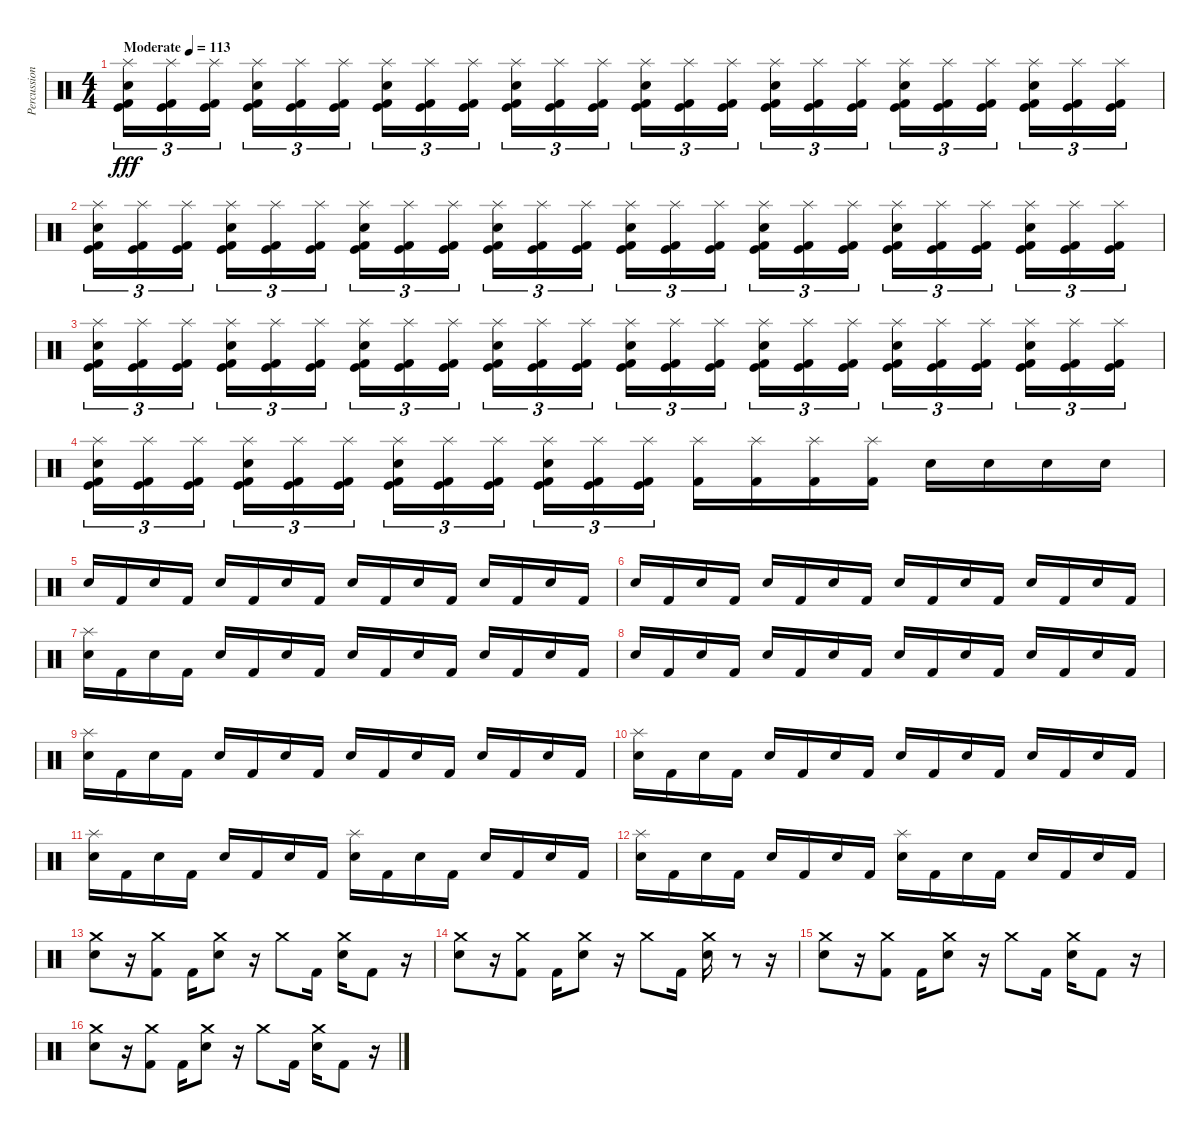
\track ("Percussion" "Percussion") {instrument percussion}
\staff {score}
\articulation defaults
\ts (4 4)
\tempo (113 "Moderate")
\clef neutral
\ks c
("Splash (hit)" "Electric Snare (hit)" "Kick (hit) 2" "Kick (hit)").16{tu (3 2) dy fff} ("Splash (hit)" "Kick (hit) 2" "Kick (hit)").16{tu (3 2)} ("Splash (hit)" "Kick (hit) 2" "Kick (hit)").16{tu (3 2) beam splitsecondary} ("Splash (hit)" "Electric Snare (hit)" "Kick (hit) 2" "Kick (hit)").16{tu (3 2)} ("Splash (hit)" "Kick (hit) 2" "Kick (hit)").16{tu (3 2)} ("Splash (hit)" "Kick (hit) 2" "Kick (hit)").16{tu (3 2)} ("Splash (hit)" "Electric Snare (hit)" "Kick (hit) 2" "Kick (hit)").16{tu (3 2)} ("Splash (hit)" "Kick (hit) 2" "Kick (hit)").16{tu (3 2)} ("Splash (hit)" "Kick (hit) 2" "Kick (hit)").16{tu (3 2) beam splitsecondary} ("Splash (hit)" "Electric Snare (hit)" "Kick (hit) 2" "Kick (hit)").16{tu (3 2)} ("Splash (hit)" "Kick (hit) 2" "Kick (hit)").16{tu (3 2)} ("Splash (hit)" "Kick (hit) 2" "Kick (hit)").16{tu (3 2)} ("Splash (hit)" "Electric Snare (hit)" "Kick (hit) 2" "Kick (hit)").16{tu (3 2)} ("Splash (hit)" "Kick (hit) 2" "Kick (hit)").16{tu (3 2)} ("Splash (hit)" "Kick (hit) 2" "Kick (hit)").16{tu (3 2) beam splitsecondary} ("Splash (hit)" "Electric Snare (hit)" "Kick (hit) 2" "Kick (hit)").16{tu (3 2)} ("Splash (hit)" "Kick (hit) 2" "Kick (hit)").16{tu (3 2)} ("Splash (hit)" "Kick (hit) 2" "Kick (hit)").16{tu (3 2)} ("Splash (hit)" "Electric Snare (hit)" "Kick (hit) 2" "Kick (hit)").16{tu (3 2)} ("Splash (hit)" "Kick (hit) 2" "Kick (hit)").16{tu (3 2)} ("Splash (hit)" "Kick (hit) 2" "Kick (hit)").16{tu (3 2) beam splitsecondary} ("Splash (hit)" "Electric Snare (hit)" "Kick (hit) 2" "Kick (hit)").16{tu (3 2)} ("Splash (hit)" "Kick (hit) 2" "Kick (hit)").16{tu (3 2)} ("Splash (hit)" "Kick (hit) 2" "Kick (hit)").16{tu (3 2)} |
("Splash (hit)" "Electric Snare (hit)" "Kick (hit) 2" "Kick (hit)").16{tu (3 2)} ("Splash (hit)" "Kick (hit) 2" "Kick (hit)").16{tu (3 2)} ("Splash (hit)" "Kick (hit) 2" "Kick (hit)").16{tu (3 2) beam splitsecondary} ("Splash (hit)" "Electric Snare (hit)" "Kick (hit) 2" "Kick (hit)").16{tu (3 2)} ("Splash (hit)" "Kick (hit) 2" "Kick (hit)").16{tu (3 2)} ("Splash (hit)" "Kick (hit) 2" "Kick (hit)").16{tu (3 2)} ("Splash (hit)" "Electric Snare (hit)" "Kick (hit) 2" "Kick (hit)").16{tu (3 2)} ("Splash (hit)" "Kick (hit) 2" "Kick (hit)").16{tu (3 2)} ("Splash (hit)" "Kick (hit) 2" "Kick (hit)").16{tu (3 2) beam splitsecondary} ("Splash (hit)" "Electric Snare (hit)" "Kick (hit) 2" "Kick (hit)").16{tu (3 2)} ("Splash (hit)" "Kick (hit) 2" "Kick (hit)").16{tu (3 2)} ("Splash (hit)" "Kick (hit) 2" "Kick (hit)").16{tu (3 2)} ("Splash (hit)" "Electric Snare (hit)" "Kick (hit) 2" "Kick (hit)").16{tu (3 2)} ("Splash (hit)" "Kick (hit) 2" "Kick (hit)").16{tu (3 2)} ("Splash (hit)" "Kick (hit) 2" "Kick (hit)").16{tu (3 2) beam splitsecondary} ("Splash (hit)" "Electric Snare (hit)" "Kick (hit) 2" "Kick (hit)").16{tu (3 2)} ("Splash (hit)" "Kick (hit) 2" "Kick (hit)").16{tu (3 2)} ("Splash (hit)" "Kick (hit) 2" "Kick (hit)").16{tu (3 2)} ("Splash (hit)" "Electric Snare (hit)" "Kick (hit) 2" "Kick (hit)").16{tu (3 2)} ("Splash (hit)" "Kick (hit) 2" "Kick (hit)").16{tu (3 2)} ("Splash (hit)" "Kick (hit) 2" "Kick (hit)").16{tu (3 2) beam splitsecondary} ("Splash (hit)" "Electric Snare (hit)" "Kick (hit) 2" "Kick (hit)").16{tu (3 2)} ("Splash (hit)" "Kick (hit) 2" "Kick (hit)").16{tu (3 2)} ("Splash (hit)" "Kick (hit) 2" "Kick (hit)").16{tu (3 2)} |
("Splash (hit)" "Electric Snare (hit)" "Kick (hit) 2" "Kick (hit)").16{tu (3 2)} ("Splash (hit)" "Kick (hit) 2" "Kick (hit)").16{tu (3 2)} ("Splash (hit)" "Kick (hit) 2" "Kick (hit)").16{tu (3 2) beam splitsecondary} ("Splash (hit)" "Electric Snare (hit)" "Kick (hit) 2" "Kick (hit)").16{tu (3 2)} ("Splash (hit)" "Kick (hit) 2" "Kick (hit)").16{tu (3 2)} ("Splash (hit)" "Kick (hit) 2" "Kick (hit)").16{tu (3 2)} ("Splash (hit)" "Electric Snare (hit)" "Kick (hit) 2" "Kick (hit)").16{tu (3 2)} ("Splash (hit)" "Kick (hit) 2" "Kick (hit)").16{tu (3 2)} ("Splash (hit)" "Kick (hit) 2" "Kick (hit)").16{tu (3 2) beam splitsecondary} ("Splash (hit)" "Electric Snare (hit)" "Kick (hit) 2" "Kick (hit)").16{tu (3 2)} ("Splash (hit)" "Kick (hit) 2" "Kick (hit)").16{tu (3 2)} ("Splash (hit)" "Kick (hit) 2" "Kick (hit)").16{tu (3 2)} ("Splash (hit)" "Electric Snare (hit)" "Kick (hit) 2" "Kick (hit)").16{tu (3 2)} ("Splash (hit)" "Kick (hit) 2" "Kick (hit)").16{tu (3 2)} ("Splash (hit)" "Kick (hit) 2" "Kick (hit)").16{tu (3 2) beam splitsecondary} ("Splash (hit)" "Electric Snare (hit)" "Kick (hit) 2" "Kick (hit)").16{tu (3 2)} ("Splash (hit)" "Kick (hit) 2" "Kick (hit)").16{tu (3 2)} ("Splash (hit)" "Kick (hit) 2" "Kick (hit)").16{tu (3 2)} ("Splash (hit)" "Electric Snare (hit)" "Kick (hit) 2" "Kick (hit)").16{tu (3 2)} ("Splash (hit)" "Kick (hit) 2" "Kick (hit)").16{tu (3 2)} ("Splash (hit)" "Kick (hit) 2" "Kick (hit)").16{tu (3 2) beam splitsecondary} ("Splash (hit)" "Electric Snare (hit)" "Kick (hit) 2" "Kick (hit)").16{tu (3 2)} ("Splash (hit)" "Kick (hit) 2" "Kick (hit)").16{tu (3 2)} ("Splash (hit)" "Kick (hit) 2" "Kick (hit)").16{tu (3 2)} |
("Splash (hit)" "Electric Snare (hit)" "Kick (hit) 2" "Kick (hit)").16{tu (3 2)} ("Splash (hit)" "Kick (hit) 2" "Kick (hit)").16{tu (3 2)} ("Splash (hit)" "Kick (hit) 2" "Kick (hit)").16{tu (3 2) beam splitsecondary} ("Splash (hit)" "Electric Snare (hit)" "Kick (hit) 2" "Kick (hit)").16{tu (3 2)} ("Splash (hit)" "Kick (hit) 2" "Kick (hit)").16{tu (3 2)} ("Splash (hit)" "Kick (hit) 2" "Kick (hit)").16{tu (3 2)} ("Splash (hit)" "Electric Snare (hit)" "Kick (hit) 2" "Kick (hit)").16{tu (3 2)} ("Splash (hit)" "Kick (hit) 2" "Kick (hit)").16{tu (3 2)} ("Splash (hit)" "Kick (hit) 2" "Kick (hit)").16{tu (3 2) beam splitsecondary} ("Splash (hit)" "Electric Snare (hit)" "Kick (hit) 2" "Kick (hit)").16{tu (3 2)} ("Splash (hit)" "Kick (hit) 2" "Kick (hit)").16{tu (3 2)} ("Splash (hit)" "Kick (hit) 2" "Kick (hit)").16{tu (3 2)} ("Splash (hit)" "Kick (hit) 2").16 ("Splash (hit)" "Kick (hit) 2").16 ("Splash (hit)" "Kick (hit) 2").16 ("Splash (hit)" "Kick (hit) 2").16 "Electric Snare (hit)".16 "Electric Snare (hit)".16 "Electric Snare (hit)".16 "Electric Snare (hit)".16 |
"Electric Snare (hit)".16 "Kick (hit) 2".16 "Electric Snare (hit)".16 "Kick (hit) 2".16 "Electric Snare (hit)".16 "Kick (hit) 2".16 "Electric Snare (hit)".16 "Kick (hit) 2".16 "Electric Snare (hit)".16 "Kick (hit) 2".16 "Electric Snare (hit)".16 "Kick (hit) 2".16 "Electric Snare (hit)".16 "Kick (hit) 2".16 "Electric Snare (hit)".16 "Kick (hit) 2".16 |
"Electric Snare (hit)".16 "Kick (hit) 2".16 "Electric Snare (hit)".16 "Kick (hit) 2".16 "Electric Snare (hit)".16 "Kick (hit) 2".16 "Electric Snare (hit)".16 "Kick (hit) 2".16 "Electric Snare (hit)".16 "Kick (hit) 2".16 "Electric Snare (hit)".16 "Kick (hit) 2".16 "Electric Snare (hit)".16 "Kick (hit) 2".16 "Electric Snare (hit)".16 "Kick (hit) 2".16 |
("Splash (hit)" "Electric Snare (hit)").16 "Kick (hit) 2".16 "Electric Snare (hit)".16 "Kick (hit) 2".16 "Electric Snare (hit)".16 "Kick (hit) 2".16 "Electric Snare (hit)".16 "Kick (hit) 2".16 "Electric Snare (hit)".16 "Kick (hit) 2".16 "Electric Snare (hit)".16 "Kick (hit) 2".16 "Electric Snare (hit)".16 "Kick (hit) 2".16 "Electric Snare (hit)".16 "Kick (hit) 2".16 |
"Electric Snare (hit)".16 "Kick (hit) 2".16 "Electric Snare (hit)".16 "Kick (hit) 2".16 "Electric Snare (hit)".16 "Kick (hit) 2".16 "Electric Snare (hit)".16 "Kick (hit) 2".16 "Electric Snare (hit)".16 "Kick (hit) 2".16 "Electric Snare (hit)".16 "Kick (hit) 2".16 "Electric Snare (hit)".16 "Kick (hit) 2".16 "Electric Snare (hit)".16 "Kick (hit) 2".16 |
("Splash (hit)" "Electric Snare (hit)").16 "Kick (hit) 2".16 "Electric Snare (hit)".16 "Kick (hit) 2".16 "Electric Snare (hit)".16 "Kick (hit) 2".16 "Electric Snare (hit)".16 "Kick (hit) 2".16 "Electric Snare (hit)".16 "Kick (hit) 2".16 "Electric Snare (hit)".16 "Kick (hit) 2".16 "Electric Snare (hit)".16 "Kick (hit) 2".16 "Electric Snare (hit)".16 "Kick (hit) 2".16 |
("Splash (hit)" "Electric Snare (hit)").16 "Kick (hit) 2".16 "Electric Snare (hit)".16 "Kick (hit) 2".16 "Electric Snare (hit)".16 "Kick (hit) 2".16 "Electric Snare (hit)".16 "Kick (hit) 2".16 "Electric Snare (hit)".16 "Kick (hit) 2".16 "Electric Snare (hit)".16 "Kick (hit) 2".16 "Electric Snare (hit)".16 "Kick (hit) 2".16 "Electric Snare (hit)".16 "Kick (hit) 2".16 |
("Splash (hit)" "Electric Snare (hit)").16 "Kick (hit) 2".16 "Electric Snare (hit)".16 "Kick (hit) 2".16 "Electric Snare (hit)".16 "Kick (hit) 2".16 "Electric Snare (hit)".16 "Kick (hit) 2".16 ("Splash (hit)" "Electric Snare (hit)").16 "Kick (hit) 2".16 "Electric Snare (hit)".16 "Kick (hit) 2".16 "Electric Snare (hit)".16 "Kick (hit) 2".16 "Electric Snare (hit)".16 "Kick (hit) 2".16 |
("Splash (hit)" "Electric Snare (hit)").16 "Kick (hit) 2".16 "Electric Snare (hit)".16 "Kick (hit) 2".16 "Electric Snare (hit)".16 "Kick (hit) 2".16 "Electric Snare (hit)".16 "Kick (hit) 2".16 ("Splash (hit)" "Electric Snare (hit)").16 "Kick (hit) 2".16 "Electric Snare (hit)".16 "Kick (hit) 2".16 "Electric Snare (hit)".16 "Kick (hit) 2".16 "Electric Snare (hit)".16 "Kick (hit) 2".16 |
("Crash medium (hit)" "Electric Snare (hit)").8 r.16 ("Crash medium (hit)" "Kick (hit) 2").8 "Kick (hit) 2".16 ("Crash medium (hit)" "Electric Snare (hit)").8 r.16 "Crash medium (hit)".8 "Kick (hit) 2".16 ("Crash medium (hit)" "Electric Snare (hit)").16 "Kick (hit) 2".8 r.16 |
("Crash medium (hit)" "Electric Snare (hit)").8 r.16 ("Crash medium (hit)" "Kick (hit) 2").8 "Kick (hit) 2".16 ("Crash medium (hit)" "Electric Snare (hit)").8 r.16 "Crash medium (hit)".8 "Kick (hit) 2".16 ("Crash medium (hit)" "Electric Snare (hit)").16 r.8 r.16 |
("Crash medium (hit)" "Electric Snare (hit)").8 r.16 ("Crash medium (hit)" "Kick (hit) 2").8 "Kick (hit) 2".16 ("Crash medium (hit)" "Electric Snare (hit)").8 r.16 "Crash medium (hit)".8 "Kick (hit) 2".16 ("Crash medium (hit)" "Electric Snare (hit)").16 "Kick (hit) 2".8 r.16 |
("Crash medium (hit)" "Electric Snare (hit)").8 r.16 ("Crash medium (hit)" "Kick (hit) 2").8 "Kick (hit) 2".16 ("Crash medium (hit)" "Electric Snare (hit)").8 r.16 "Crash medium (hit)".8 "Kick (hit) 2".16 ("Crash medium (hit)" "Electric Snare (hit)").16 "Kick (hit) 2".8 r.16
